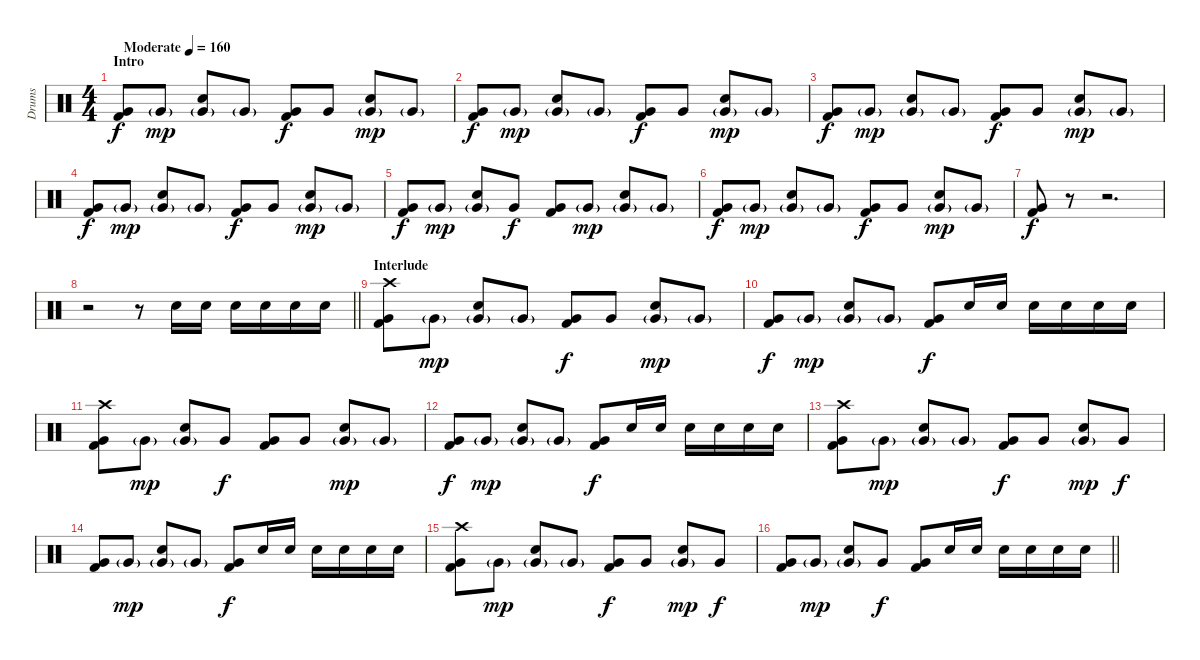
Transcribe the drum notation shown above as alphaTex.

\track ("Drums" "Drums") {instrument percussion}
\staff {score}
\articulation defaults
\ts (4 4)
\section ("" "Intro")
\tempo (160 "Moderate")
\clef neutral
\ks c
("Very Low Tom (hit)" "Kick (hit) 2").8{dy f} "Very Low Tom (hit)"{g}.8{dy mp} ("Electric Snare (hit)" "Very Low Tom (hit)"{g}).8 "Very Low Tom (hit)"{g}.8 ("Very Low Tom (hit)" "Kick (hit) 2").8{dy f} "Very Low Tom (hit)".8 ("Electric Snare (hit)" "Very Low Tom (hit)"{g}).8{dy mp} "Very Low Tom (hit)"{g}.8 |
("Very Low Tom (hit)" "Kick (hit) 2").8{dy f} "Very Low Tom (hit)"{g}.8{dy mp} ("Electric Snare (hit)" "Very Low Tom (hit)"{g}).8 "Very Low Tom (hit)"{g}.8 ("Very Low Tom (hit)" "Kick (hit) 2").8{dy f} "Very Low Tom (hit)".8 ("Electric Snare (hit)" "Very Low Tom (hit)"{g}).8{dy mp} "Very Low Tom (hit)"{g}.8 |
("Very Low Tom (hit)" "Kick (hit) 2").8{dy f} "Very Low Tom (hit)"{g}.8{dy mp} ("Electric Snare (hit)" "Very Low Tom (hit)"{g}).8 "Very Low Tom (hit)"{g}.8 ("Very Low Tom (hit)" "Kick (hit) 2").8{dy f} "Very Low Tom (hit)".8 ("Electric Snare (hit)" "Very Low Tom (hit)"{g}).8{dy mp} "Very Low Tom (hit)"{g}.8 |
("Very Low Tom (hit)" "Kick (hit) 2").8{dy f} "Very Low Tom (hit)"{g}.8{dy mp} ("Electric Snare (hit)" "Very Low Tom (hit)"{g}).8 "Very Low Tom (hit)"{g}.8 ("Very Low Tom (hit)" "Kick (hit) 2").8{dy f} "Very Low Tom (hit)".8 ("Electric Snare (hit)" "Very Low Tom (hit)"{g}).8{dy mp} "Very Low Tom (hit)"{g}.8 |
("Very Low Tom (hit)" "Kick (hit) 2").8{dy f} "Very Low Tom (hit)"{g}.8{dy mp} ("Electric Snare (hit)" "Very Low Tom (hit)"{g}).8 "Very Low Tom (hit)".8{dy f} ("Very Low Tom (hit)" "Kick (hit) 2").8 "Very Low Tom (hit)"{g}.8{dy mp} ("Electric Snare (hit)" "Very Low Tom (hit)"{g}).8 "Very Low Tom (hit)"{g}.8 |
("Very Low Tom (hit)" "Kick (hit) 2").8{dy f} "Very Low Tom (hit)"{g}.8{dy mp} ("Electric Snare (hit)" "Very Low Tom (hit)"{g}).8 "Very Low Tom (hit)"{g}.8 ("Very Low Tom (hit)" "Kick (hit) 2").8{dy f} "Very Low Tom (hit)".8 ("Electric Snare (hit)" "Very Low Tom (hit)"{g}).8{dy mp} "Very Low Tom (hit)"{g}.8 |
("Very Low Tom (hit)" "Kick (hit) 2").8{dy f} r.8 r.2{d} |
\barLineRight lightlight
r.2 r.8 "Electric Snare (hit)".16 "Electric Snare (hit)".16 "Electric Snare (hit)".16 "Electric Snare (hit)".16 "Electric Snare (hit)".16 "Electric Snare (hit)".16 |
\section ("" "Interlude")
("Crash high (hit)" "Very Low Tom (hit)" "Kick (hit) 2").8 "Very Low Tom (hit)"{g}.8{dy mp} ("Electric Snare (hit)" "Very Low Tom (hit)"{g}).8 "Very Low Tom (hit)"{g}.8 ("Very Low Tom (hit)" "Kick (hit) 2").8{dy f} "Very Low Tom (hit)".8 ("Electric Snare (hit)" "Very Low Tom (hit)"{g}).8{dy mp} "Very Low Tom (hit)"{g}.8 |
("Very Low Tom (hit)" "Kick (hit) 2").8{dy f} "Very Low Tom (hit)"{g}.8{dy mp} ("Electric Snare (hit)" "Very Low Tom (hit)"{g}).8 "Very Low Tom (hit)"{g}.8 ("Very Low Tom (hit)" "Kick (hit) 2").8{dy f} "Electric Snare (hit)".16 "Electric Snare (hit)".16 "Electric Snare (hit)".16 "Electric Snare (hit)".16 "Electric Snare (hit)".16 "Electric Snare (hit)".16 |
("Crash high (hit)" "Very Low Tom (hit)" "Kick (hit) 2").8 "Very Low Tom (hit)"{g}.8{dy mp} ("Electric Snare (hit)" "Very Low Tom (hit)"{g}).8 "Very Low Tom (hit)".8{dy f} ("Very Low Tom (hit)" "Kick (hit) 2").8 "Very Low Tom (hit)".8 ("Electric Snare (hit)" "Very Low Tom (hit)"{g}).8{dy mp} "Very Low Tom (hit)"{g}.8 |
("Very Low Tom (hit)" "Kick (hit) 2").8{dy f} "Very Low Tom (hit)"{g}.8{dy mp} ("Electric Snare (hit)" "Very Low Tom (hit)"{g}).8 "Very Low Tom (hit)"{g}.8 ("Very Low Tom (hit)" "Kick (hit) 2").8{dy f} "Electric Snare (hit)".16 "Electric Snare (hit)".16 "Electric Snare (hit)".16 "Electric Snare (hit)".16 "Electric Snare (hit)".16 "Electric Snare (hit)".16 |
("Crash high (hit)" "Very Low Tom (hit)" "Kick (hit) 2").8 "Very Low Tom (hit)"{g}.8{dy mp} ("Electric Snare (hit)" "Very Low Tom (hit)"{g}).8 "Very Low Tom (hit)"{g}.8 ("Very Low Tom (hit)" "Kick (hit) 2").8{dy f} "Very Low Tom (hit)".8 ("Electric Snare (hit)" "Very Low Tom (hit)"{g}).8{dy mp} "Very Low Tom (hit)".8{dy f} |
("Very Low Tom (hit)" "Kick (hit) 2").8 "Very Low Tom (hit)"{g}.8{dy mp} ("Electric Snare (hit)" "Very Low Tom (hit)"{g}).8 "Very Low Tom (hit)"{g}.8 ("Very Low Tom (hit)" "Kick (hit) 2").8{dy f} "Electric Snare (hit)".16 "Electric Snare (hit)".16 "Electric Snare (hit)".16 "Electric Snare (hit)".16 "Electric Snare (hit)".16 "Electric Snare (hit)".16 |
("Crash high (hit)" "Very Low Tom (hit)" "Kick (hit) 2").8 "Very Low Tom (hit)"{g}.8{dy mp} ("Electric Snare (hit)" "Very Low Tom (hit)"{g}).8 "Very Low Tom (hit)"{g}.8 ("Very Low Tom (hit)" "Kick (hit) 2").8{dy f} "Very Low Tom (hit)".8 ("Electric Snare (hit)" "Very Low Tom (hit)"{g}).8{dy mp} "Very Low Tom (hit)".8{dy f} |
\barLineRight lightlight
("Very Low Tom (hit)" "Kick (hit) 2").8 "Very Low Tom (hit)"{g}.8{dy mp} ("Electric Snare (hit)" "Very Low Tom (hit)"{g}).8 "Very Low Tom (hit)".8{dy f} ("Very Low Tom (hit)" "Kick (hit) 2").8 "Electric Snare (hit)".16 "Electric Snare (hit)".16 "Electric Snare (hit)".16 "Electric Snare (hit)".16 "Electric Snare (hit)".16 "Electric Snare (hit)".16
